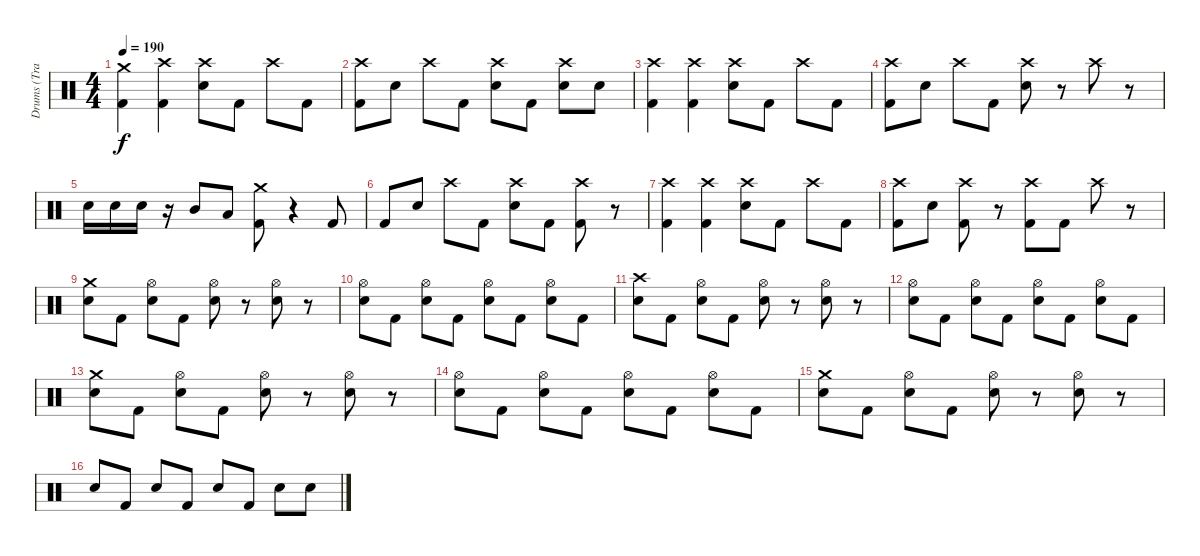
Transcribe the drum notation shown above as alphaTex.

\track ("Drums (Travis)" "Drums (Tra") {instrument percussion}
\staff {score}
\articulation defaults
\ts (4 4)
\tempo 190
\clef neutral
\ks c
("Crash medium (hit)" "Kick (hit) 2").4{dy f} ("Crash high (hit)" "Kick (hit) 2").4 ("Crash high (hit)" "Electric Snare (hit)").8 "Kick (hit) 2".8 "Crash high (hit)".8 "Kick (hit) 2".8 |
("Crash high (hit)" "Kick (hit) 2").8 "Electric Snare (hit)".8 "Crash high (hit)".8 "Kick (hit) 2".8 ("Crash high (hit)" "Electric Snare (hit)").8 "Kick (hit) 2".8 ("Crash high (hit)" "Electric Snare (hit)").8 "Electric Snare (hit)".8 |
("Crash high (hit)" "Kick (hit) 2").4 ("Crash high (hit)" "Kick (hit) 2").4 ("Crash high (hit)" "Electric Snare (hit)").8 "Kick (hit) 2".8 "Crash high (hit)".8 "Kick (hit) 2".8 |
("Crash high (hit)" "Kick (hit) 2").8 "Electric Snare (hit)".8 "Crash high (hit)".8 "Kick (hit) 2".8 ("Crash high (hit)" "Electric Snare (hit)").8 r.8 "Crash high (hit)".8 r.8 |
"Electric Snare (hit)".16 "Electric Snare (hit)".16 "Electric Snare (hit)".16 r.16 "Mid Tom (hit)".8 "Low Tom (hit)".8 ("Crash medium (hit)" "Kick (hit) 2").8 r.4 "Kick (hit) 2".8 |
"Kick (hit) 2".8 "Electric Snare (hit)".8 "Crash high (hit)".8 "Kick (hit) 2".8 ("Crash high (hit)" "Electric Snare (hit)").8 "Kick (hit) 2".8 ("Crash high (hit)" "Kick (hit) 2").8 r.8 |
("Crash high (hit)" "Kick (hit) 2").4 ("Crash high (hit)" "Kick (hit) 2").4 ("Crash high (hit)" "Electric Snare (hit)").8 "Kick (hit) 2".8 "Crash high (hit)".8 "Kick (hit) 2".8 |
("Crash high (hit)" "Kick (hit) 2").8 "Electric Snare (hit)".8 ("Crash high (hit)" "Kick (hit) 2").8 r.8 ("Crash high (hit)" "Kick (hit) 2").8 "Kick (hit) 2".8 "Crash high (hit)".8 r.8 |
("Crash medium (hit)" "Electric Snare (hit)").8 "Kick (hit) 2".8 ("Hi-Hat (open)" "Electric Snare (hit)").8 "Kick (hit) 2".8 ("Hi-Hat (open)" "Electric Snare (hit)").8 r.8 ("Hi-Hat (open)" "Electric Snare (hit)").8 r.8 |
("Hi-Hat (open)" "Electric Snare (hit)").8 "Kick (hit) 2".8 ("Hi-Hat (open)" "Electric Snare (hit)").8 "Kick (hit) 2".8 ("Hi-Hat (open)" "Electric Snare (hit)").8 "Kick (hit) 2".8 ("Hi-Hat (open)" "Electric Snare (hit)").8 "Kick (hit) 2".8 |
("Crash high (hit)" "Electric Snare (hit)").8 "Kick (hit) 2".8 ("Hi-Hat (open)" "Electric Snare (hit)").8 "Kick (hit) 2".8 ("Hi-Hat (open)" "Electric Snare (hit)").8 r.8 ("Hi-Hat (open)" "Electric Snare (hit)").8 r.8 |
("Hi-Hat (open)" "Electric Snare (hit)").8 "Kick (hit) 2".8 ("Hi-Hat (open)" "Electric Snare (hit)").8 "Kick (hit) 2".8 ("Hi-Hat (open)" "Electric Snare (hit)").8 "Kick (hit) 2".8 ("Hi-Hat (open)" "Electric Snare (hit)").8 "Kick (hit) 2".8 |
("Crash medium (hit)" "Electric Snare (hit)").8 "Kick (hit) 2".8 ("Hi-Hat (open)" "Electric Snare (hit)").8 "Kick (hit) 2".8 ("Hi-Hat (open)" "Electric Snare (hit)").8 r.8 ("Hi-Hat (open)" "Electric Snare (hit)").8 r.8 |
("Hi-Hat (open)" "Electric Snare (hit)").8 "Kick (hit) 2".8 ("Hi-Hat (open)" "Electric Snare (hit)").8 "Kick (hit) 2".8 ("Hi-Hat (open)" "Electric Snare (hit)").8 "Kick (hit) 2".8 ("Hi-Hat (open)" "Electric Snare (hit)").8 "Kick (hit) 2".8 |
("Crash medium (hit)" "Electric Snare (hit)").8 "Kick (hit) 2".8 ("Hi-Hat (open)" "Electric Snare (hit)").8 "Kick (hit) 2".8 ("Hi-Hat (open)" "Electric Snare (hit)").8 r.8 ("Hi-Hat (open)" "Electric Snare (hit)").8 r.8 |
"Electric Snare (hit)".8 "Kick (hit) 2".8 "Electric Snare (hit)".8 "Kick (hit) 2".8 "Electric Snare (hit)".8 "Kick (hit) 2".8 "Electric Snare (hit)".8 "Electric Snare (hit)".8
